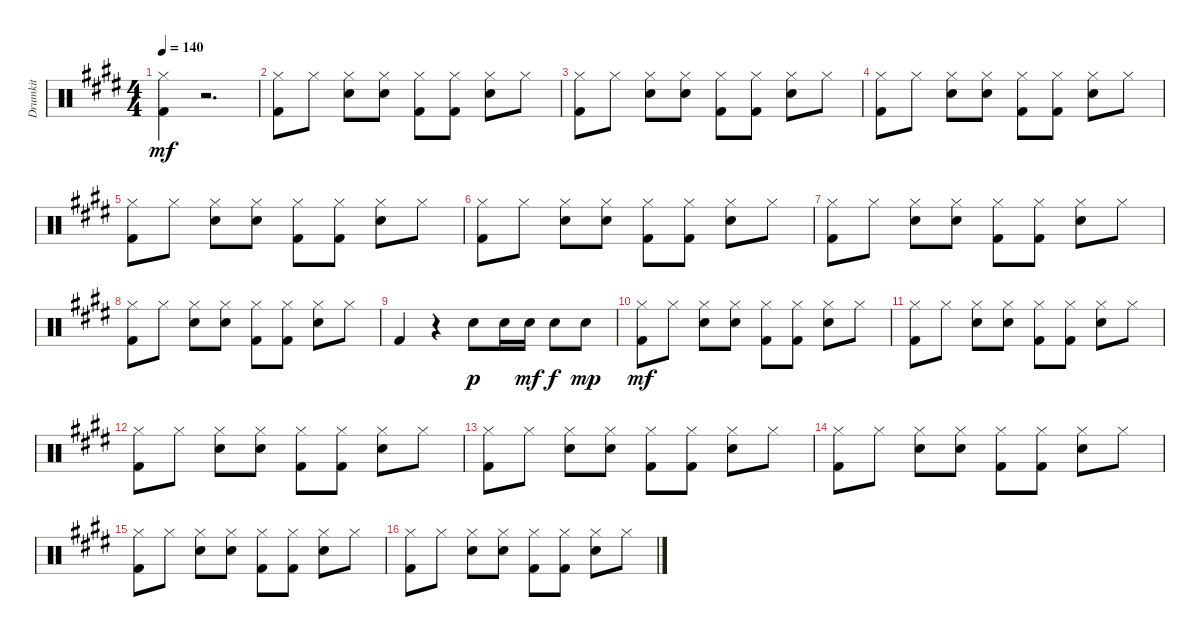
\track ("Drumkit" "Drumkit") {instrument percussion}
\staff {score}
\articulation defaults
\ts (4 4)
\tempo 140
\clef neutral
\ks e
("Hi-Hat (closed)" "Kick (hit) 2").4{dy mf} r.2{d} |
("Hi-Hat (closed)" "Kick (hit) 2").8 "Hi-Hat (closed)".8 ("Hi-Hat (closed)" "Snare (hit) 2").8 ("Hi-Hat (closed)" "Snare (hit) 2").8 ("Hi-Hat (closed)" "Kick (hit) 2").8 ("Hi-Hat (closed)" "Kick (hit) 2").8 ("Hi-Hat (closed)" "Snare (hit) 2").8 "Hi-Hat (closed)".8 |
("Hi-Hat (closed)" "Kick (hit) 2").8 "Hi-Hat (closed)".8 ("Hi-Hat (closed)" "Snare (hit) 2").8 ("Hi-Hat (closed)" "Snare (hit) 2").8 ("Hi-Hat (closed)" "Kick (hit) 2").8 ("Hi-Hat (closed)" "Kick (hit) 2").8 ("Hi-Hat (closed)" "Snare (hit) 2").8 "Hi-Hat (closed)".8 |
("Hi-Hat (closed)" "Kick (hit) 2").8 "Hi-Hat (closed)".8 ("Hi-Hat (closed)" "Snare (hit) 2").8 ("Hi-Hat (closed)" "Snare (hit) 2").8 ("Hi-Hat (closed)" "Kick (hit) 2").8 ("Hi-Hat (closed)" "Kick (hit) 2").8 ("Hi-Hat (closed)" "Snare (hit) 2").8 "Hi-Hat (closed)".8 |
("Hi-Hat (closed)" "Kick (hit) 2").8 "Hi-Hat (closed)".8 ("Hi-Hat (closed)" "Snare (hit) 2").8 ("Hi-Hat (closed)" "Snare (hit) 2").8 ("Hi-Hat (closed)" "Kick (hit) 2").8 ("Hi-Hat (closed)" "Kick (hit) 2").8 ("Hi-Hat (closed)" "Snare (hit) 2").8 "Hi-Hat (closed)".8 |
("Hi-Hat (closed)" "Kick (hit) 2").8 "Hi-Hat (closed)".8 ("Hi-Hat (closed)" "Snare (hit) 2").8 ("Hi-Hat (closed)" "Snare (hit) 2").8 ("Hi-Hat (closed)" "Kick (hit) 2").8 ("Hi-Hat (closed)" "Kick (hit) 2").8 ("Hi-Hat (closed)" "Snare (hit) 2").8 "Hi-Hat (closed)".8 |
("Hi-Hat (closed)" "Kick (hit) 2").8 "Hi-Hat (closed)".8 ("Hi-Hat (closed)" "Snare (hit) 2").8 ("Hi-Hat (closed)" "Snare (hit) 2").8 ("Hi-Hat (closed)" "Kick (hit) 2").8 ("Hi-Hat (closed)" "Kick (hit) 2").8 ("Hi-Hat (closed)" "Snare (hit) 2").8 "Hi-Hat (closed)".8 |
("Hi-Hat (closed)" "Kick (hit) 2").8 "Hi-Hat (closed)".8 ("Hi-Hat (closed)" "Snare (hit) 2").8 ("Hi-Hat (closed)" "Snare (hit) 2").8 ("Hi-Hat (closed)" "Kick (hit) 2").8 ("Hi-Hat (closed)" "Kick (hit) 2").8 ("Hi-Hat (closed)" "Snare (hit) 2").8 "Hi-Hat (closed)".8 |
"Kick (hit) 2".4 r.4 "Snare (hit) 2".8{dy p} "Snare (hit) 2".16 "Snare (hit) 2".16{dy mf} "Snare (hit) 2".8{dy f} "Snare (hit) 2".8{dy mp} |
("Hi-Hat (closed)" "Kick (hit) 2").8{dy mf} "Hi-Hat (closed)".8 ("Hi-Hat (closed)" "Snare (hit) 2").8 ("Hi-Hat (closed)" "Snare (hit) 2").8 ("Hi-Hat (closed)" "Kick (hit) 2").8 ("Hi-Hat (closed)" "Kick (hit) 2").8 ("Hi-Hat (closed)" "Snare (hit) 2").8 "Hi-Hat (closed)".8 |
("Hi-Hat (closed)" "Kick (hit) 2").8 "Hi-Hat (closed)".8 ("Hi-Hat (closed)" "Snare (hit) 2").8 ("Hi-Hat (closed)" "Snare (hit) 2").8 ("Hi-Hat (closed)" "Kick (hit) 2").8 ("Hi-Hat (closed)" "Kick (hit) 2").8 ("Hi-Hat (closed)" "Snare (hit) 2").8 "Hi-Hat (closed)".8 |
("Hi-Hat (closed)" "Kick (hit) 2").8 "Hi-Hat (closed)".8 ("Hi-Hat (closed)" "Snare (hit) 2").8 ("Hi-Hat (closed)" "Snare (hit) 2").8 ("Hi-Hat (closed)" "Kick (hit) 2").8 ("Hi-Hat (closed)" "Kick (hit) 2").8 ("Hi-Hat (closed)" "Snare (hit) 2").8 "Hi-Hat (closed)".8 |
("Hi-Hat (closed)" "Kick (hit) 2").8 "Hi-Hat (closed)".8 ("Hi-Hat (closed)" "Snare (hit) 2").8 ("Hi-Hat (closed)" "Snare (hit) 2").8 ("Hi-Hat (closed)" "Kick (hit) 2").8 ("Hi-Hat (closed)" "Kick (hit) 2").8 ("Hi-Hat (closed)" "Snare (hit) 2").8 "Hi-Hat (closed)".8 |
("Hi-Hat (closed)" "Kick (hit) 2").8 "Hi-Hat (closed)".8 ("Hi-Hat (closed)" "Snare (hit) 2").8 ("Hi-Hat (closed)" "Snare (hit) 2").8 ("Hi-Hat (closed)" "Kick (hit) 2").8 ("Hi-Hat (closed)" "Kick (hit) 2").8 ("Hi-Hat (closed)" "Snare (hit) 2").8 "Hi-Hat (closed)".8 |
("Hi-Hat (closed)" "Kick (hit) 2").8 "Hi-Hat (closed)".8 ("Hi-Hat (closed)" "Snare (hit) 2").8 ("Hi-Hat (closed)" "Snare (hit) 2").8 ("Hi-Hat (closed)" "Kick (hit) 2").8 ("Hi-Hat (closed)" "Kick (hit) 2").8 ("Hi-Hat (closed)" "Snare (hit) 2").8 "Hi-Hat (closed)".8 |
("Hi-Hat (closed)" "Kick (hit) 2").8 "Hi-Hat (closed)".8 ("Hi-Hat (closed)" "Snare (hit) 2").8 ("Hi-Hat (closed)" "Snare (hit) 2").8 ("Hi-Hat (closed)" "Kick (hit) 2").8 ("Hi-Hat (closed)" "Kick (hit) 2").8 ("Hi-Hat (closed)" "Snare (hit) 2").8 "Hi-Hat (closed)".8
